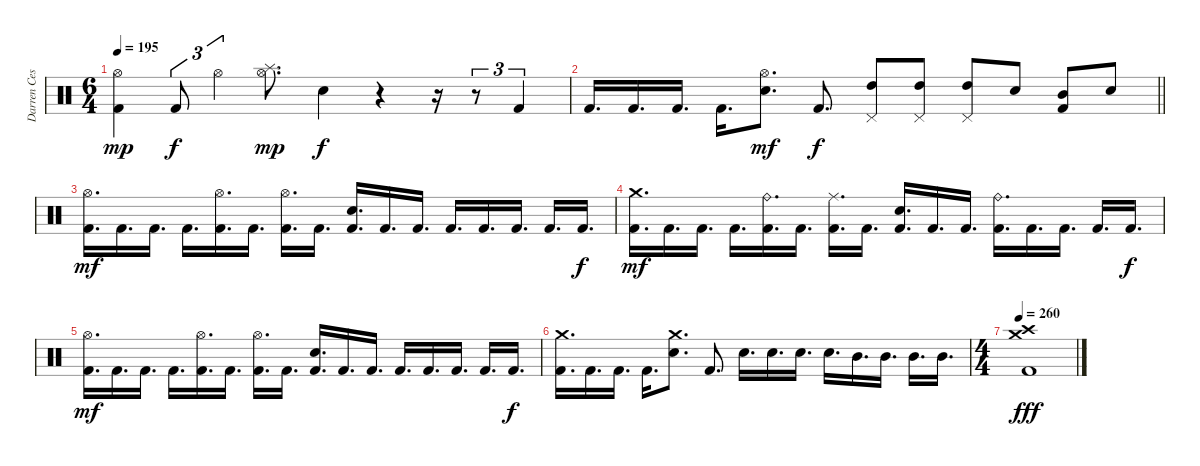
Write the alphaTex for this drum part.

\track ("Darren Cesca" "Darren Ces") {instrument percussion}
\staff {score}
\articulation defaults
\ts (6 4)
\tempo 195
\clef neutral
\ks c
("Hi-Hat (open)" "Kick (hit) 2").4{dy mp} "Kick (hit) 2".8{tu (3 2) dy f} "Hi-Hat (open)".4{tu (3 2)} ("Hi-Hat (open)" "Splash (hit)").8{d dy mp} "Electric Snare (hit)".4{dy f} r.4 r.16 r.8{tu (3 2)} "Kick (hit) 2".4{tu (3 2)} |
\barLineRight lightlight "Kick (hit) 2".16{d} "Kick (hit) 2".16{d} "Kick (hit) 2".16{d} "Kick (hit) 2".16{d}
("Hi-Hat (open)" "Electric Snare (hit)").8{d dy mf} "Kick (hit) 2".8{d dy f} ("Pedal Hi-Hat (hit)" "High Tom (hit)").8 ("Pedal Hi-Hat (hit)" "High Tom (hit)").8 ("Pedal Hi-Hat (hit)" "High Tom (hit)").8 "Electric Snare (hit)".8 ("Mid Tom (hit)" "Kick (hit) 2").8 "Electric Snare (hit)".8 |
("Hi-Hat (open)" "Kick (hit) 2").16{d dy mf} "Kick (hit) 2".16{d} "Kick (hit) 2".16{d} "Kick (hit) 2".16{d} ("Hi-Hat (open)" "Kick (hit) 2").16{d} "Kick (hit) 2".16{d} ("Hi-Hat (open)" "Kick (hit) 2").16{d} "Kick (hit) 2".16{d} ("Electric Snare (hit)" "Kick (hit) 2").16{d} "Kick (hit) 2".16{d} "Kick (hit) 2".16{d} "Kick (hit) 2".16{d} "Kick (hit) 2".16{d} "Kick (hit) 2".16{d} "Kick (hit) 2".16{d} "Kick (hit) 2".16{d dy f} |
("Crash medium (hit)" "Kick (hit) 2").16{d dy mf} "Kick (hit) 2".16{d} "Kick (hit) 2".16{d} "Kick (hit) 2".16{d} ("Ride (bell)" "Kick (hit) 2").16{d} "Kick (hit) 2".16{d} ("Ride (middle)" "Kick (hit) 2").16{d} "Kick (hit) 2".16{d} ("Electric Snare (hit)" "Kick (hit) 2").16{d} "Kick (hit) 2".16{d} "Kick (hit) 2".16{d} ("Ride (bell)" "Kick (hit) 2").16{d} "Kick (hit) 2".16{d} "Kick (hit) 2".16{d} "Kick (hit) 2".16{d} "Kick (hit) 2".16{d dy f} |
("Hi-Hat (open)" "Kick (hit) 2").16{d dy mf} "Kick (hit) 2".16{d} "Kick (hit) 2".16{d} "Kick (hit) 2".16{d} ("Hi-Hat (open)" "Kick (hit) 2").16{d} "Kick (hit) 2".16{d} ("Hi-Hat (open)" "Kick (hit) 2").16{d} "Kick (hit) 2".16{d} ("Electric Snare (hit)" "Kick (hit) 2").16{d} "Kick (hit) 2".16{d} "Kick (hit) 2".16{d} "Kick (hit) 2".16{d} "Kick (hit) 2".16{d} "Kick (hit) 2".16{d} "Kick (hit) 2".16{d} "Kick (hit) 2".16{d dy f} |
("Crash medium (hit)" "Kick (hit) 2").16{d} "Kick (hit) 2".16{d} "Kick (hit) 2".16{d} "Kick (hit) 2".16{d} ("Crash medium (hit)" "Electric Snare (hit)").8{d} "Kick (hit) 2".8{d} "Electric Snare (hit)".16{d} "Electric Snare (hit)".16{d} "Electric Snare (hit)".16{d} "Electric Snare (hit)".16{d} "Mid Tom (hit)".16{d} "Mid Tom (hit)".16{d} "Mid Tom (hit)".16{d} "Mid Tom (hit)".16{d} |
\ts (4 4)
\tempo 260
("Crash high (hit)" "Crash medium (hit)" "Kick (hit) 2").1{dy fff}
